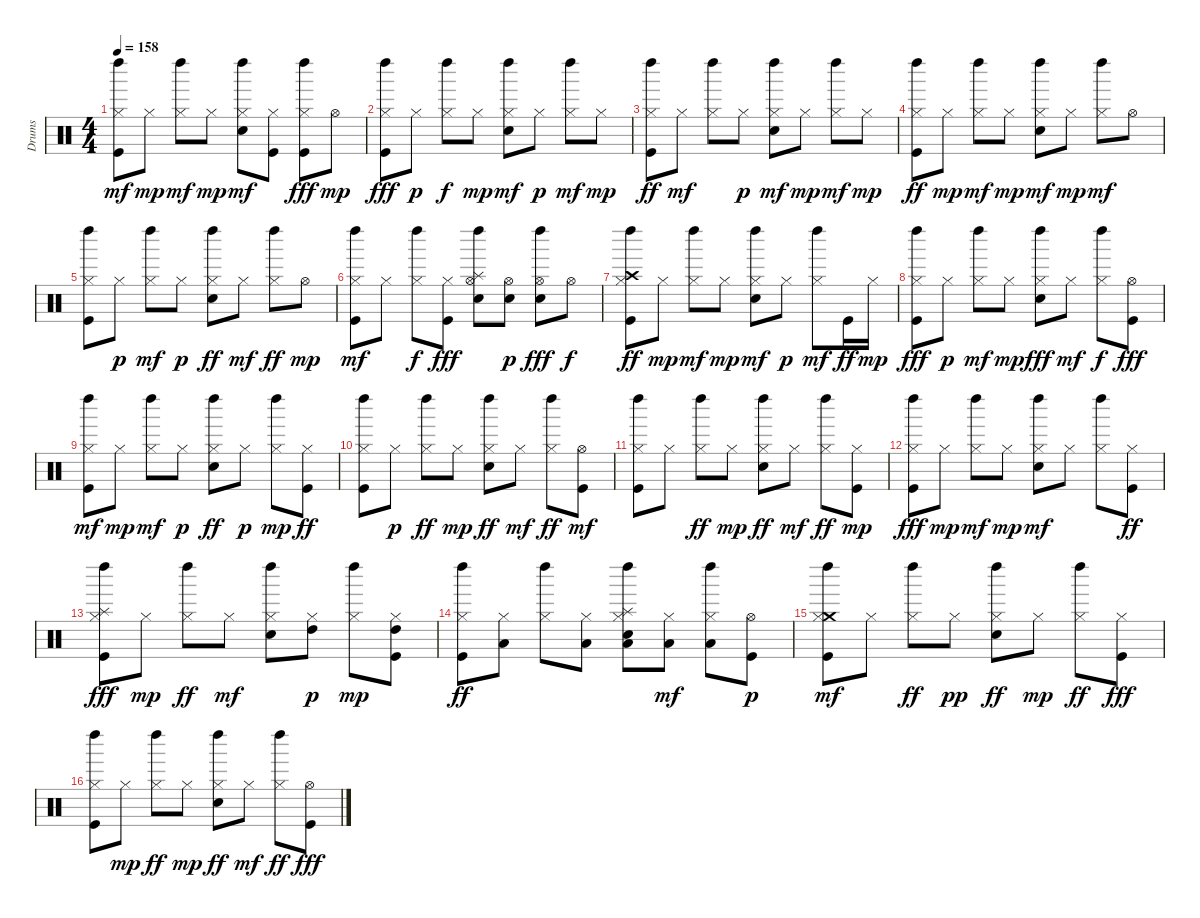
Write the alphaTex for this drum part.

\track ("Drums" "Drums") {instrument percussion}
\staff {score}
\articulation defaults
\ts (4 4)
\tempo 158
\clef neutral
\ks c
("Kick (hit)" "Left Maraca (hit)" "Hi-Hat (closed)").8{dy mf} "Hi-Hat (closed)".8{dy mp} ("Hi-Hat (closed)" "Left Maraca (hit)").8{dy mf} "Hi-Hat (closed)".8{dy mp} ("Electric Snare (hit)" "Hi-Hat (closed)" "Left Maraca (hit)").8{dy mf} ("Kick (hit)" "Hi-Hat (closed)").8 ("Kick (hit)" "Hi-Hat (closed)" "Left Maraca (hit)").8{dy fff} "Hi-Hat (open)".8{dy mp} |
("Hi-Hat (closed)" "Left Maraca (hit)" "Kick (hit)").8{dy fff} "Hi-Hat (closed)".8{dy p} ("Hi-Hat (closed)" "Left Maraca (hit)").8{dy f} "Hi-Hat (closed)".8{dy mp} ("Electric Snare (hit)" "Hi-Hat (closed)" "Left Maraca (hit)").8{dy mf} "Hi-Hat (closed)".8{dy p} ("Hi-Hat (closed)" "Left Maraca (hit)").8{dy mf} "Hi-Hat (closed)".8{dy mp} |
("Kick (hit)" "Hi-Hat (closed)" "Left Maraca (hit)").8{dy ff} "Hi-Hat (closed)".8{dy mf} ("Hi-Hat (closed)" "Left Maraca (hit)").8 "Hi-Hat (closed)".8{dy p} ("Electric Snare (hit)" "Hi-Hat (closed)" "Left Maraca (hit)").8{dy mf} "Hi-Hat (closed)".8{dy mp} ("Hi-Hat (closed)" "Left Maraca (hit)").8{dy mf} "Hi-Hat (closed)".8{dy mp} |
("Kick (hit)" "Hi-Hat (closed)" "Left Maraca (hit)").8{dy ff} "Hi-Hat (closed)".8{dy mp} ("Hi-Hat (closed)" "Left Maraca (hit)").8{dy mf} "Hi-Hat (closed)".8{dy mp} ("Hi-Hat (closed)" "Electric Snare (hit)" "Left Maraca (hit)").8{dy mf} "Hi-Hat (closed)".8{dy mp} ("Hi-Hat (closed)" "Left Maraca (hit)").8{dy mf} "Hi-Hat (open)".8 |
("Kick (hit)" "Hi-Hat (closed)" "Left Maraca (hit)").8 "Hi-Hat (closed)".8{dy p} ("Hi-Hat (closed)" "Left Maraca (hit)").8{dy mf} "Hi-Hat (closed)".8{dy p} ("Electric Snare (hit)" "Left Maraca (hit)" "Hi-Hat (closed)").8{dy ff} "Hi-Hat (closed)".8{dy mf} ("Left Maraca (hit)" "Hi-Hat (closed)").8{dy ff} "Hi-Hat (open)".8{dy mp} |
("Kick (hit)" "Hi-Hat (closed)" "Left Maraca (hit)").8{dy mf} "Hi-Hat (closed)".8 ("Hi-Hat (closed)" "Left Maraca (hit)").8{dy f} ("Hi-Hat (closed)" "Kick (hit)").8{dy fff} ("Hi-Hat (open)" "Splash (hit)" "Left Maraca (hit)" "Electric Snare (hit)").8 ("Electric Snare (hit)" "Hi-Hat (open)").8{dy p} ("Electric Snare (hit)" "Left Maraca (hit)" "Hi-Hat (open)").8{dy fff} "Hi-Hat (open)".8{dy f} |
("Hi-Hat (closed)" "Crash high (hit)" "Left Maraca (hit)" "Kick (hit)").8{dy ff} "Hi-Hat (closed)".8{dy mp} ("Hi-Hat (closed)" "Left Maraca (hit)").8{dy mf} "Hi-Hat (closed)".8{dy mp} ("Electric Snare (hit)" "Hi-Hat (closed)" "Left Maraca (hit)").8{dy mf} "Hi-Hat (closed)".8{dy p} ("Hi-Hat (closed)" "Left Maraca (hit)").8{dy mf} "Kick (hit)".16{dy ff} "Hi-Hat (closed)".16{dy mp} |
("Hi-Hat (closed)" "Kick (hit)" "Left Maraca (hit)").8{dy fff} "Hi-Hat (closed)".8{dy p} ("Hi-Hat (closed)" "Left Maraca (hit)").8{dy mf} "Hi-Hat (closed)".8{dy mp} ("Hi-Hat (closed)" "Left Maraca (hit)" "Electric Snare (hit)").8{dy fff} "Hi-Hat (closed)".8{dy mf} ("Left Maraca (hit)" "Hi-Hat (closed)").8{dy f} ("Hi-Hat (open)" "Kick (hit)").8{dy fff} |
("Kick (hit)" "Left Maraca (hit)" "Hi-Hat (closed)").8{dy mf} "Hi-Hat (closed)".8{dy mp} ("Hi-Hat (closed)" "Left Maraca (hit)").8{dy mf} "Hi-Hat (closed)".8{dy p} ("Electric Snare (hit)" "Left Maraca (hit)" "Hi-Hat (closed)").8{dy ff} "Hi-Hat (closed)".8{dy p} ("Left Maraca (hit)" "Hi-Hat (closed)").8{dy mp} ("Hi-Hat (closed)" "Kick (hit)").8{dy ff} |
("Kick (hit)" "Left Maraca (hit)" "Hi-Hat (closed)").8 "Hi-Hat (closed)".8{dy p} ("Left Maraca (hit)" "Hi-Hat (closed)").8{dy ff} "Hi-Hat (closed)".8{dy mp} ("Electric Snare (hit)" "Left Maraca (hit)" "Hi-Hat (closed)").8{dy ff} "Hi-Hat (closed)".8{dy mf} ("Left Maraca (hit)" "Hi-Hat (closed)").8{dy ff} ("Kick (hit)" "Hi-Hat (open)").8{dy mf} |
("Left Maraca (hit)" "Kick (hit)" "Hi-Hat (closed)").8 "Hi-Hat (closed)".8 ("Left Maraca (hit)" "Hi-Hat (closed)").8{dy ff} "Hi-Hat (closed)".8{dy mp} ("Electric Snare (hit)" "Left Maraca (hit)" "Hi-Hat (closed)").8{dy ff} "Hi-Hat (closed)".8{dy mf} ("Left Maraca (hit)" "Hi-Hat (closed)").8{dy ff} ("Kick (hit)" "Hi-Hat (closed)").8{dy mp} |
("Hi-Hat (closed)" "Left Maraca (hit)" "Kick (hit)").8{dy fff} "Hi-Hat (closed)".8{dy mp} ("Left Maraca (hit)" "Hi-Hat (closed)").8{dy mf} "Hi-Hat (closed)".8{dy mp} ("Electric Snare (hit)" "Hi-Hat (closed)" "Left Maraca (hit)").8{dy mf} "Hi-Hat (closed)".8 ("Hi-Hat (closed)" "Left Maraca (hit)").8 ("Hi-Hat (closed)" "Kick (hit)").8{dy ff} |
("Hi-Hat (closed)" "Splash (hit)" "Left Maraca (hit)" "Kick (hit)").8{dy fff} "Hi-Hat (closed)".8{dy mp} ("Left Maraca (hit)" "Hi-Hat (closed)").8{dy ff} "Hi-Hat (closed)".8{dy mf} ("Electric Snare (hit)" "Hi-Hat (closed)" "Left Maraca (hit)").8 ("High Tom (hit)" "Hi-Hat (closed)").8{dy p} ("Hi-Hat (closed)" "Left Maraca (hit)").8{dy mp} ("Kick (hit)" "High Tom (hit)" "Hi-Hat (closed)").8 |
("Kick (hit)" "Hi-Hat (closed)" "Left Maraca (hit)").8{dy ff} ("Hi-Hat (closed)" "Low Tom (hit)").8 ("Left Maraca (hit)" "Hi-Hat (closed)").8 ("Hi-Hat (closed)" "Low Tom (hit)").8 ("Splash (hit)" "Left Maraca (hit)" "Electric Snare (hit)" "Hi-Hat (closed)" "Low Floor Tom (hit)").8 ("Low Floor Tom (hit)" "Hi-Hat (closed)").8{dy mf} ("Low Floor Tom (hit)" "Hi-Hat (closed)" "Left Maraca (hit)").8 ("Kick (hit)" "Hi-Hat (open)").8{dy p} |
("Crash medium (hit)" "Left Maraca (hit)" "Kick (hit)" "Hi-Hat (closed)").8{dy mf} "Hi-Hat (closed)".8 ("Left Maraca (hit)" "Hi-Hat (closed)").8{dy ff} "Hi-Hat (closed)".8{dy pp} ("Left Maraca (hit)" "Electric Snare (hit)" "Hi-Hat (closed)").8{dy ff} "Hi-Hat (closed)".8{dy mp} ("Left Maraca (hit)" "Hi-Hat (closed)").8{dy ff} ("Hi-Hat (closed)" "Kick (hit)").8{dy fff} |
("Hi-Hat (closed)" "Left Maraca (hit)" "Kick (hit)").8 "Hi-Hat (closed)".8{dy mp} ("Left Maraca (hit)" "Hi-Hat (closed)").8{dy ff} "Hi-Hat (closed)".8{dy mp} ("Left Maraca (hit)" "Electric Snare (hit)" "Hi-Hat (closed)").8{dy ff} "Hi-Hat (closed)".8{dy mf} ("Left Maraca (hit)" "Hi-Hat (closed)").8{dy ff} ("Hi-Hat (open)" "Kick (hit)").8{dy fff}
